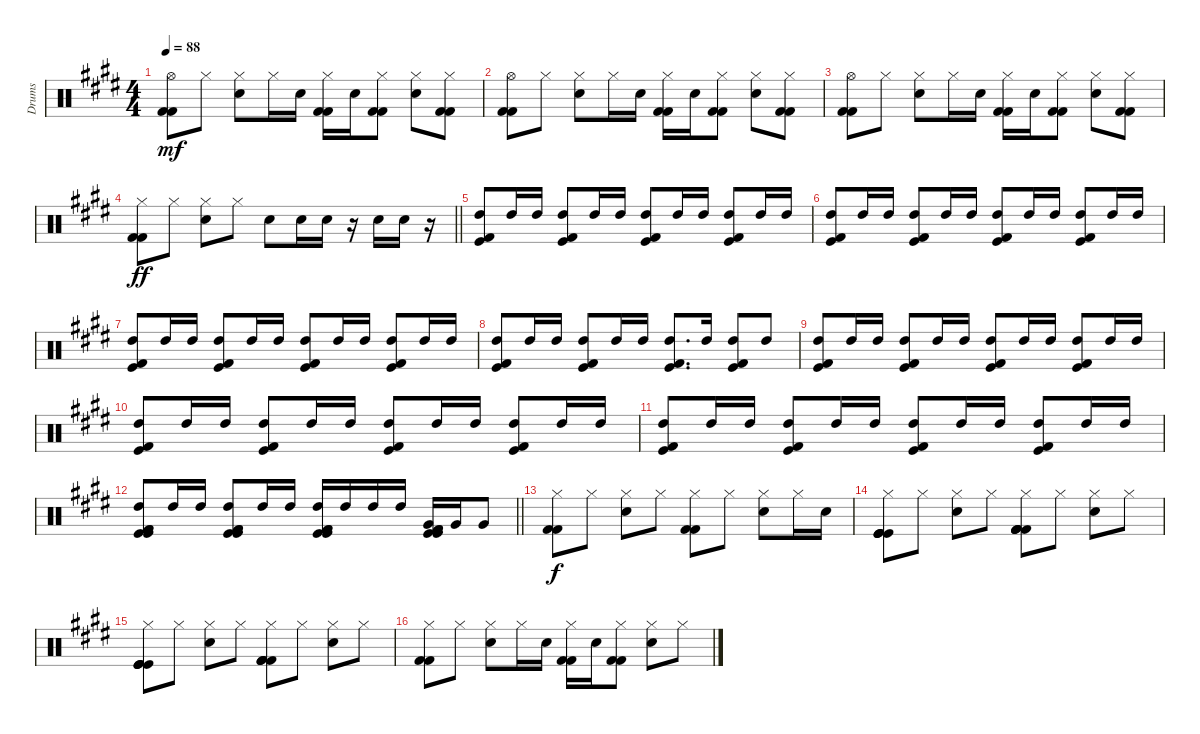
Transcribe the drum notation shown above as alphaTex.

\track ("Drums" "Drums") {instrument percussion}
\staff {score}
\articulation defaults
\ts (4 4)
\tempo 88
\clef neutral
\ks e
("Hi-Hat (open)" "Kick (hit) 2" "Kick (hit) 2").8{dy mf} "Hi-Hat (closed)".8 ("Hi-Hat (closed)" "Snare (hit) 2").8 "Hi-Hat (closed)".16 "Snare (hit) 2".16 ("Hi-Hat (closed)" "Kick (hit) 2" "Kick (hit) 2").16 "Snare (hit) 2".16 ("Hi-Hat (closed)" "Kick (hit) 2" "Kick (hit) 2").8 ("Hi-Hat (closed)" "Snare (hit) 2").8 ("Hi-Hat (closed)" "Kick (hit) 2" "Kick (hit) 2").8 |
("Hi-Hat (open)" "Kick (hit) 2" "Kick (hit) 2").8 "Hi-Hat (closed)".8 ("Hi-Hat (closed)" "Snare (hit) 2").8 "Hi-Hat (closed)".16 "Snare (hit) 2".16 ("Hi-Hat (closed)" "Kick (hit) 2" "Kick (hit) 2").16 "Snare (hit) 2".16 ("Hi-Hat (closed)" "Kick (hit) 2" "Kick (hit) 2").8 ("Hi-Hat (closed)" "Snare (hit) 2").8 ("Hi-Hat (closed)" "Kick (hit) 2" "Kick (hit) 2").8 |
("Hi-Hat (open)" "Kick (hit) 2" "Kick (hit) 2").8 "Hi-Hat (closed)".8 ("Hi-Hat (closed)" "Snare (hit) 2").8 "Hi-Hat (closed)".16 "Snare (hit) 2".16 ("Hi-Hat (closed)" "Kick (hit) 2" "Kick (hit) 2").16 "Snare (hit) 2".16 ("Hi-Hat (closed)" "Kick (hit) 2" "Kick (hit) 2").8 ("Hi-Hat (closed)" "Snare (hit) 2").8 ("Hi-Hat (closed)" "Kick (hit) 2" "Kick (hit) 2").8 |
\barLineRight lightlight
("Hi-Hat (closed)" "Kick (hit) 2" "Kick (hit) 2").8{dy ff} "Hi-Hat (closed)".8 ("Hi-Hat (closed)" "Snare (hit) 2").8 "Hi-Hat (closed)".8 "Snare (hit) 2".8 "Snare (hit) 2".16 "Snare (hit) 2".16 r.16 "Snare (hit) 2".16 "Snare (hit) 2".16 r.16 |
("Kick (hit)" "Kick (hit) 2" "High Tom (hit)").8 "High Tom (hit)".16 "High Tom (hit)".16 ("Kick (hit)" "Kick (hit) 2" "High Tom (hit)").8 "High Tom (hit)".16 "High Tom (hit)".16 ("Kick (hit)" "Kick (hit) 2" "High Tom (hit)").8 "High Tom (hit)".16 "High Tom (hit)".16 ("Kick (hit)" "Kick (hit) 2" "High Tom (hit)").8 "High Tom (hit)".16 "High Tom (hit)".16 |
("Kick (hit)" "Kick (hit) 2" "High Tom (hit)").8 "High Tom (hit)".16 "High Tom (hit)".16 ("Kick (hit)" "Kick (hit) 2" "High Tom (hit)").8 "High Tom (hit)".16 "High Tom (hit)".16 ("Kick (hit)" "Kick (hit) 2" "High Tom (hit)").8 "High Tom (hit)".16 "High Tom (hit)".16 ("Kick (hit)" "Kick (hit) 2" "High Tom (hit)").8 "High Tom (hit)".16 "High Tom (hit)".16 |
("Kick (hit)" "Kick (hit) 2" "High Tom (hit)").8 "High Tom (hit)".16 "High Tom (hit)".16 ("Kick (hit)" "Kick (hit) 2" "High Tom (hit)").8 "High Tom (hit)".16 "High Tom (hit)".16 ("Kick (hit)" "Kick (hit) 2" "High Tom (hit)").8 "High Tom (hit)".16 "High Tom (hit)".16 ("Kick (hit)" "Kick (hit) 2" "High Tom (hit)").8 "High Tom (hit)".16 "High Tom (hit)".16 |
("Kick (hit) 2" "Kick (hit)" "High Tom (hit)").8 "High Tom (hit)".16 "High Tom (hit)".16 ("Kick (hit) 2" "Kick (hit)" "High Tom (hit)").8 "High Tom (hit)".16 "High Tom (hit)".16 ("Kick (hit) 2" "Kick (hit)" "High Tom (hit)").8{d} "High Tom (hit)".16 ("Kick (hit) 2" "Kick (hit)" "High Tom (hit)").8 "High Tom (hit)".8 |
("Kick (hit)" "Kick (hit) 2" "High Tom (hit)").8 "High Tom (hit)".16 "High Tom (hit)".16 ("Kick (hit)" "Kick (hit) 2" "High Tom (hit)").8 "High Tom (hit)".16 "High Tom (hit)".16 ("Kick (hit)" "Kick (hit) 2" "High Tom (hit)").8 "High Tom (hit)".16 "High Tom (hit)".16 ("Kick (hit)" "Kick (hit) 2" "High Tom (hit)").8 "High Tom (hit)".16 "High Tom (hit)".16 |
("Kick (hit)" "Kick (hit) 2" "High Tom (hit)").8 "High Tom (hit)".16 "High Tom (hit)".16 ("Kick (hit)" "Kick (hit) 2" "High Tom (hit)").8 "High Tom (hit)".16 "High Tom (hit)".16 ("Kick (hit)" "Kick (hit) 2" "High Tom (hit)").8 "High Tom (hit)".16 "High Tom (hit)".16 ("Kick (hit)" "Kick (hit) 2" "High Tom (hit)").8 "High Tom (hit)".16 "High Tom (hit)".16 |
("Kick (hit)" "Kick (hit) 2" "High Tom (hit)").8 "High Tom (hit)".16 "High Tom (hit)".16 ("Kick (hit)" "Kick (hit) 2" "High Tom (hit)").8 "High Tom (hit)".16 "High Tom (hit)".16 ("Kick (hit)" "Kick (hit) 2" "High Tom (hit)").8 "High Tom (hit)".16 "High Tom (hit)".16 ("Kick (hit)" "Kick (hit) 2" "High Tom (hit)").8 "High Tom (hit)".16 "High Tom (hit)".16 |
\barLineRight lightlight
("Kick (hit) 2" "Kick (hit)" "Kick (hit)" "Kick (hit) 2" "High Tom (hit)").8 "High Tom (hit)".16 "High Tom (hit)".16 ("Kick (hit) 2" "Kick (hit) 2" "Kick (hit)" "Kick (hit)" "High Tom (hit)").8 "High Tom (hit)".16 "High Tom (hit)".16 ("Kick (hit)" "Kick (hit) 2" "Kick (hit)" "Kick (hit) 2" "High Tom (hit)").16 "High Tom (hit)".16 "High Tom (hit)".16 "High Tom (hit)".16 ("Kick (hit) 2" "Kick (hit)" "Kick (hit)" "Kick (hit) 2" "Very Low Tom (hit)").16 "Very Low Tom (hit)".16 "Very Low Tom (hit)".8 |
("Hi-Hat (closed)" "Kick (hit) 2" "Kick (hit) 2").8{dy f} "Hi-Hat (closed)".8 ("Hi-Hat (closed)" "Snare (hit) 2").8 "Hi-Hat (closed)".8 ("Hi-Hat (closed)" "Kick (hit) 2" "Kick (hit) 2").8 "Hi-Hat (closed)".8 ("Hi-Hat (closed)" "Snare (hit) 2").8 "Hi-Hat (closed)".16 "Snare (hit) 2".16 |
("Hi-Hat (closed)" "Kick (hit)" "Kick (hit)" "Kick (hit)" "Kick (hit)").8 "Hi-Hat (closed)".8 ("Hi-Hat (closed)" "Snare (hit) 2").8 "Hi-Hat (closed)".8 ("Hi-Hat (closed)" "Kick (hit) 2" "Kick (hit) 2" "Kick (hit) 2" "Kick (hit) 2").8 "Hi-Hat (closed)".8 ("Hi-Hat (closed)" "Snare (hit) 2").8 "Hi-Hat (closed)".8 |
("Hi-Hat (closed)" "Kick (hit)" "Kick (hit)" "Kick (hit)" "Kick (hit)").8 "Hi-Hat (closed)".8 ("Hi-Hat (closed)" "Snare (hit) 2").8 "Hi-Hat (closed)".8 ("Hi-Hat (closed)" "Kick (hit) 2" "Kick (hit) 2" "Kick (hit) 2" "Kick (hit) 2").8 "Hi-Hat (closed)".8 ("Hi-Hat (closed)" "Snare (hit) 2").8 "Hi-Hat (closed)".8 |
("Hi-Hat (closed)" "Kick (hit) 2" "Kick (hit) 2").8 "Hi-Hat (closed)".8 ("Hi-Hat (closed)" "Snare (hit) 2").8 "Hi-Hat (closed)".16 "Snare (hit) 2".16 ("Hi-Hat (closed)" "Kick (hit) 2" "Kick (hit) 2").16 "Snare (hit) 2".16 ("Hi-Hat (closed)" "Kick (hit) 2" "Kick (hit) 2").8 ("Hi-Hat (closed)" "Snare (hit) 2").8 "Hi-Hat (closed)".8
